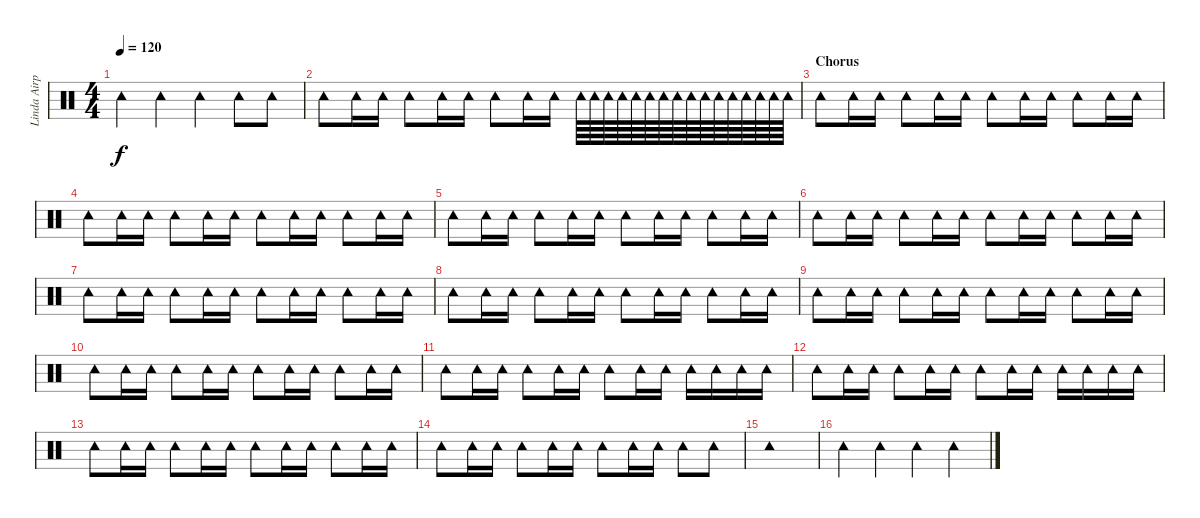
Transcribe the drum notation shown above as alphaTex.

\track ("Linda Airplane" "Linda Airp") {instrument percussion}
\staff {score}
\articulation defaults
\ts (4 4)
\tempo 120
\clef neutral
\ks c "Tambourine (hit)".4{dy f} "Tambourine (hit)".4 "Tambourine (hit)".4 "Tambourine (hit)".8 "Tambourine (hit)".8
|
"Tambourine (hit)".8 "Tambourine (hit)".16 "Tambourine (hit)".16 "Tambourine (hit)".8 "Tambourine (hit)".16 "Tambourine (hit)".16 "Tambourine (hit)".8 "Tambourine (hit)".16 "Tambourine (hit)".16 "Tambourine (hit)".64 "Tambourine (hit)".64 "Tambourine (hit)".64 "Tambourine (hit)".64 "Tambourine (hit)".64 "Tambourine (hit)".64 "Tambourine (hit)".64 "Tambourine (hit)".64 "Tambourine (hit)".64 "Tambourine (hit)".64 "Tambourine (hit)".64 "Tambourine (hit)".64 "Tambourine (hit)".64 "Tambourine (hit)".64 "Tambourine (hit)".64 "Tambourine (hit)".64 |
\section ("" "Chorus")
"Tambourine (hit)".8 "Tambourine (hit)".16 "Tambourine (hit)".16 "Tambourine (hit)".8 "Tambourine (hit)".16 "Tambourine (hit)".16 "Tambourine (hit)".8 "Tambourine (hit)".16 "Tambourine (hit)".16 "Tambourine (hit)".8 "Tambourine (hit)".16 "Tambourine (hit)".16 |
"Tambourine (hit)".8 "Tambourine (hit)".16 "Tambourine (hit)".16 "Tambourine (hit)".8 "Tambourine (hit)".16 "Tambourine (hit)".16 "Tambourine (hit)".8 "Tambourine (hit)".16 "Tambourine (hit)".16 "Tambourine (hit)".8 "Tambourine (hit)".16 "Tambourine (hit)".16 |
"Tambourine (hit)".8 "Tambourine (hit)".16 "Tambourine (hit)".16 "Tambourine (hit)".8 "Tambourine (hit)".16 "Tambourine (hit)".16 "Tambourine (hit)".8 "Tambourine (hit)".16 "Tambourine (hit)".16 "Tambourine (hit)".8 "Tambourine (hit)".16 "Tambourine (hit)".16 |
"Tambourine (hit)".8 "Tambourine (hit)".16 "Tambourine (hit)".16 "Tambourine (hit)".8 "Tambourine (hit)".16 "Tambourine (hit)".16 "Tambourine (hit)".8 "Tambourine (hit)".16 "Tambourine (hit)".16 "Tambourine (hit)".8 "Tambourine (hit)".16 "Tambourine (hit)".16 |
"Tambourine (hit)".8 "Tambourine (hit)".16 "Tambourine (hit)".16 "Tambourine (hit)".8 "Tambourine (hit)".16 "Tambourine (hit)".16 "Tambourine (hit)".8 "Tambourine (hit)".16 "Tambourine (hit)".16 "Tambourine (hit)".8 "Tambourine (hit)".16 "Tambourine (hit)".16 |
"Tambourine (hit)".8 "Tambourine (hit)".16 "Tambourine (hit)".16 "Tambourine (hit)".8 "Tambourine (hit)".16 "Tambourine (hit)".16 "Tambourine (hit)".8 "Tambourine (hit)".16 "Tambourine (hit)".16 "Tambourine (hit)".8 "Tambourine (hit)".16 "Tambourine (hit)".16 |
"Tambourine (hit)".8 "Tambourine (hit)".16 "Tambourine (hit)".16 "Tambourine (hit)".8 "Tambourine (hit)".16 "Tambourine (hit)".16 "Tambourine (hit)".8 "Tambourine (hit)".16 "Tambourine (hit)".16 "Tambourine (hit)".8 "Tambourine (hit)".16 "Tambourine (hit)".16 |
"Tambourine (hit)".8 "Tambourine (hit)".16 "Tambourine (hit)".16 "Tambourine (hit)".8 "Tambourine (hit)".16 "Tambourine (hit)".16 "Tambourine (hit)".8 "Tambourine (hit)".16 "Tambourine (hit)".16 "Tambourine (hit)".8 "Tambourine (hit)".16 "Tambourine (hit)".16 |
"Tambourine (hit)".8 "Tambourine (hit)".16 "Tambourine (hit)".16 "Tambourine (hit)".8 "Tambourine (hit)".16 "Tambourine (hit)".16 "Tambourine (hit)".8 "Tambourine (hit)".16 "Tambourine (hit)".16 "Tambourine (hit)".16 "Tambourine (hit)".16 "Tambourine (hit)".16 "Tambourine (hit)".16 |
"Tambourine (hit)".8 "Tambourine (hit)".16 "Tambourine (hit)".16 "Tambourine (hit)".8 "Tambourine (hit)".16 "Tambourine (hit)".16 "Tambourine (hit)".8 "Tambourine (hit)".16 "Tambourine (hit)".16 "Tambourine (hit)".16 "Tambourine (hit)".16 "Tambourine (hit)".16 "Tambourine (hit)".16 |
"Tambourine (hit)".8 "Tambourine (hit)".16 "Tambourine (hit)".16 "Tambourine (hit)".8 "Tambourine (hit)".16 "Tambourine (hit)".16 "Tambourine (hit)".8 "Tambourine (hit)".16 "Tambourine (hit)".16 "Tambourine (hit)".8 "Tambourine (hit)".16 "Tambourine (hit)".16 |
"Tambourine (hit)".8 "Tambourine (hit)".16 "Tambourine (hit)".16 "Tambourine (hit)".8 "Tambourine (hit)".16 "Tambourine (hit)".16 "Tambourine (hit)".8 "Tambourine (hit)".16 "Tambourine (hit)".16 "Tambourine (hit)".8 "Tambourine (hit)".8 |
"Tambourine (hit)".1 |
"Tambourine (hit)".4 "Tambourine (hit)".4 "Tambourine (hit)".4 "Tambourine (hit)".4
